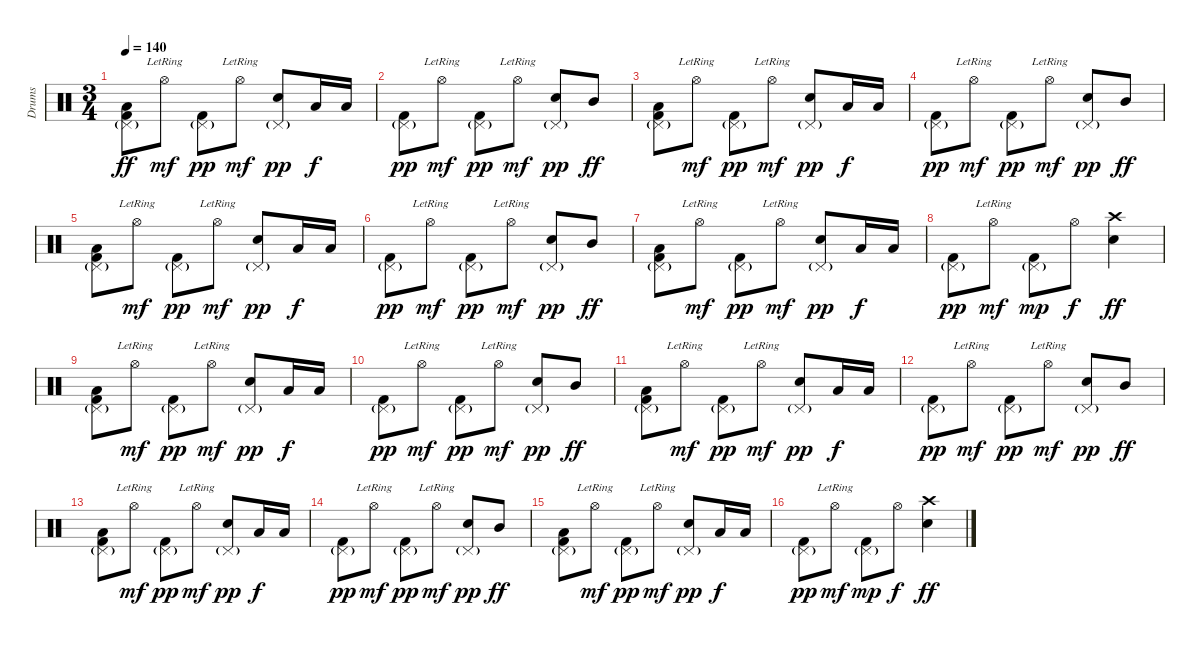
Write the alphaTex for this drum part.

\track ("Drums" "Drums") {instrument percussion}
\staff {score}
\articulation defaults
\ts (3 4)
\tempo 140
\clef neutral
\ks c
("Pedal Hi-Hat (hit)"{g} "Low Tom (hit)" "Kick (hit) 2").8{dy ff} "Hi-Hat (open)"{lr}.8{dy mf} ("Pedal Hi-Hat (hit)"{g} "Kick (hit) 2").8{dy pp} "Hi-Hat (open)"{lr}.8{dy mf} ("Pedal Hi-Hat (hit)"{g} "Snare (hit) 2").8{dy pp} "Low Tom (hit)".16{dy f} "Low Tom (hit)".16 |
("Pedal Hi-Hat (hit)"{g} "Kick (hit) 2").8{dy pp} "Hi-Hat (open)"{lr}.8{dy mf} ("Pedal Hi-Hat (hit)"{g} "Kick (hit) 2").8{dy pp} "Hi-Hat (open)"{lr}.8{dy mf} ("Pedal Hi-Hat (hit)"{g} "Snare (hit) 2").8{dy pp} "Mid Tom (hit)".8{dy ff} |
("Pedal Hi-Hat (hit)"{g} "Low Tom (hit)" "Kick (hit) 2").8 "Hi-Hat (open)"{lr}.8{dy mf} ("Pedal Hi-Hat (hit)"{g} "Kick (hit) 2").8{dy pp} "Hi-Hat (open)"{lr}.8{dy mf} ("Pedal Hi-Hat (hit)"{g} "Snare (hit) 2").8{dy pp} "Low Tom (hit)".16{dy f} "Low Tom (hit)".16 |
("Pedal Hi-Hat (hit)"{g} "Kick (hit) 2").8{dy pp} "Hi-Hat (open)"{lr}.8{dy mf} ("Pedal Hi-Hat (hit)"{g} "Kick (hit) 2").8{dy pp} "Hi-Hat (open)"{lr}.8{dy mf} ("Pedal Hi-Hat (hit)"{g} "Snare (hit) 2").8{dy pp} "Mid Tom (hit)".8{dy ff} |
("Pedal Hi-Hat (hit)"{g} "Low Tom (hit)" "Kick (hit) 2").8 "Hi-Hat (open)"{lr}.8{dy mf} ("Pedal Hi-Hat (hit)"{g} "Kick (hit) 2").8{dy pp} "Hi-Hat (open)"{lr}.8{dy mf} ("Pedal Hi-Hat (hit)"{g} "Snare (hit) 2").8{dy pp} "Low Tom (hit)".16{dy f} "Low Tom (hit)".16 |
("Pedal Hi-Hat (hit)"{g} "Kick (hit) 2").8{dy pp} "Hi-Hat (open)"{lr}.8{dy mf} ("Pedal Hi-Hat (hit)"{g} "Kick (hit) 2").8{dy pp} "Hi-Hat (open)"{lr}.8{dy mf} ("Pedal Hi-Hat (hit)"{g} "Snare (hit) 2").8{dy pp} "Mid Tom (hit)".8{dy ff} |
("Pedal Hi-Hat (hit)"{g} "Low Tom (hit)" "Kick (hit) 2").8 "Hi-Hat (open)"{lr}.8{dy mf} ("Pedal Hi-Hat (hit)"{g} "Kick (hit) 2").8{dy pp} "Hi-Hat (open)"{lr}.8{dy mf} ("Pedal Hi-Hat (hit)"{g} "Snare (hit) 2").8{dy pp} "Low Tom (hit)".16{dy f} "Low Tom (hit)".16 |
("Pedal Hi-Hat (hit)"{g} "Kick (hit) 2").8{dy pp} "Hi-Hat (open)"{lr}.8{dy mf} ("Pedal Hi-Hat (hit)"{g} "Kick (hit) 2").8{dy mp} "Hi-Hat (open)".8{dy f} ("Crash high (hit)" "Snare (hit) 2").4{dy ff} |
("Pedal Hi-Hat (hit)"{g} "Low Tom (hit)" "Kick (hit) 2").8 "Hi-Hat (open)"{lr}.8{dy mf} ("Pedal Hi-Hat (hit)"{g} "Kick (hit) 2").8{dy pp} "Hi-Hat (open)"{lr}.8{dy mf} ("Pedal Hi-Hat (hit)"{g} "Snare (hit) 2").8{dy pp} "Low Tom (hit)".16{dy f} "Low Tom (hit)".16 |
("Pedal Hi-Hat (hit)"{g} "Kick (hit) 2").8{dy pp} "Hi-Hat (open)"{lr}.8{dy mf} ("Pedal Hi-Hat (hit)"{g} "Kick (hit) 2").8{dy pp} "Hi-Hat (open)"{lr}.8{dy mf} ("Pedal Hi-Hat (hit)"{g} "Snare (hit) 2").8{dy pp} "Mid Tom (hit)".8{dy ff} |
("Pedal Hi-Hat (hit)"{g} "Low Tom (hit)" "Kick (hit) 2").8 "Hi-Hat (open)"{lr}.8{dy mf} ("Pedal Hi-Hat (hit)"{g} "Kick (hit) 2").8{dy pp} "Hi-Hat (open)"{lr}.8{dy mf} ("Pedal Hi-Hat (hit)"{g} "Snare (hit) 2").8{dy pp} "Low Tom (hit)".16{dy f} "Low Tom (hit)".16 |
("Pedal Hi-Hat (hit)"{g} "Kick (hit) 2").8{dy pp} "Hi-Hat (open)"{lr}.8{dy mf} ("Pedal Hi-Hat (hit)"{g} "Kick (hit) 2").8{dy pp} "Hi-Hat (open)"{lr}.8{dy mf} ("Pedal Hi-Hat (hit)"{g} "Snare (hit) 2").8{dy pp} "Mid Tom (hit)".8{dy ff} |
("Pedal Hi-Hat (hit)"{g} "Low Tom (hit)" "Kick (hit) 2").8 "Hi-Hat (open)"{lr}.8{dy mf} ("Pedal Hi-Hat (hit)"{g} "Kick (hit) 2").8{dy pp} "Hi-Hat (open)"{lr}.8{dy mf} ("Pedal Hi-Hat (hit)"{g} "Snare (hit) 2").8{dy pp} "Low Tom (hit)".16{dy f} "Low Tom (hit)".16 |
("Pedal Hi-Hat (hit)"{g} "Kick (hit) 2").8{dy pp} "Hi-Hat (open)"{lr}.8{dy mf} ("Pedal Hi-Hat (hit)"{g} "Kick (hit) 2").8{dy pp} "Hi-Hat (open)"{lr}.8{dy mf} ("Pedal Hi-Hat (hit)"{g} "Snare (hit) 2").8{dy pp} "Mid Tom (hit)".8{dy ff} |
("Pedal Hi-Hat (hit)"{g} "Low Tom (hit)" "Kick (hit) 2").8 "Hi-Hat (open)"{lr}.8{dy mf} ("Pedal Hi-Hat (hit)"{g} "Kick (hit) 2").8{dy pp} "Hi-Hat (open)"{lr}.8{dy mf} ("Pedal Hi-Hat (hit)"{g} "Snare (hit) 2").8{dy pp} "Low Tom (hit)".16{dy f} "Low Tom (hit)".16 |
("Pedal Hi-Hat (hit)"{g} "Kick (hit) 2").8{dy pp} "Hi-Hat (open)"{lr}.8{dy mf} ("Pedal Hi-Hat (hit)"{g} "Kick (hit) 2").8{dy mp} "Hi-Hat (open)".8{dy f} ("Crash high (hit)" "Snare (hit) 2").4{dy ff}
